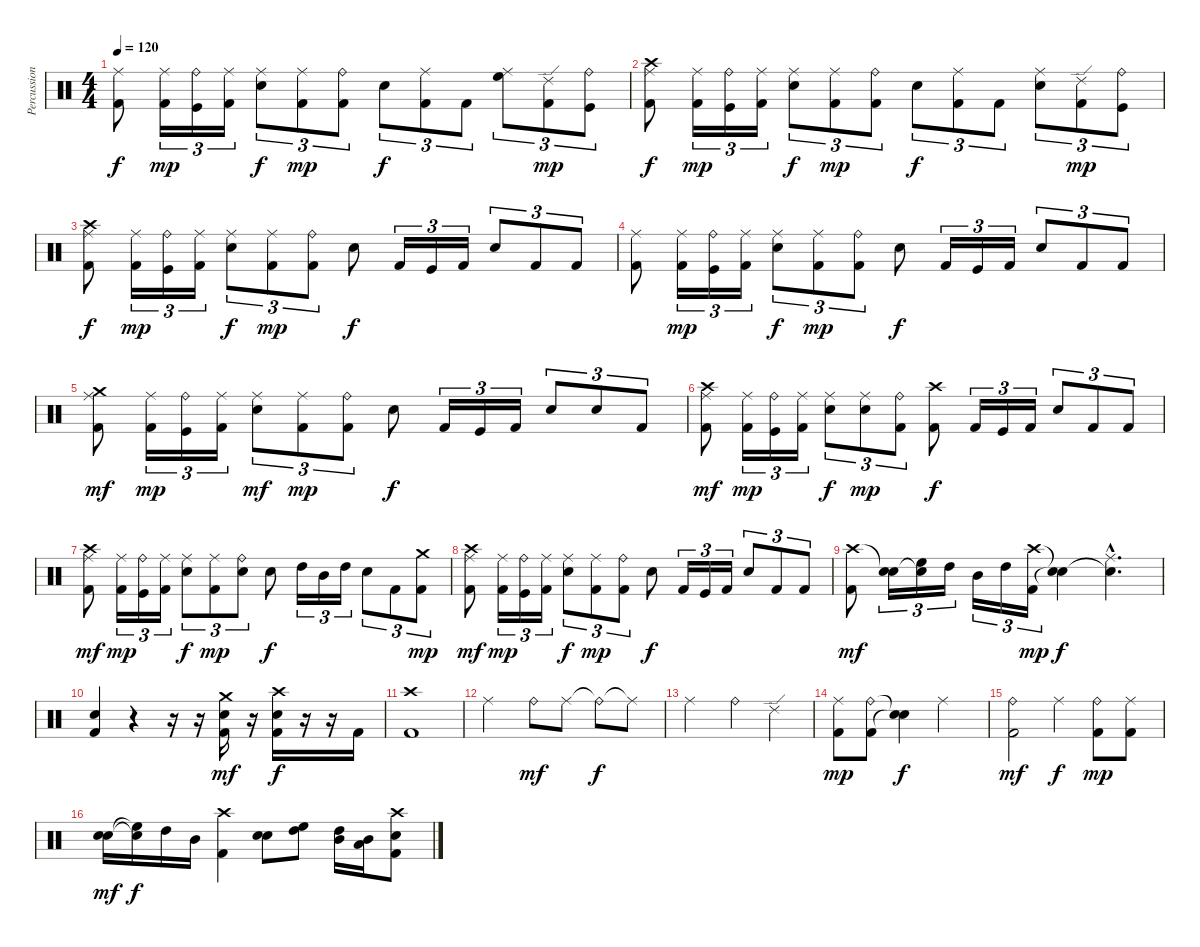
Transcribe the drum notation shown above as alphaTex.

\track ("Percussioni" "Percussion") {instrument percussion}
\staff {score}
\articulation defaults
\ts (4 4)
\tempo 120
\clef neutral
\ks c
("Ride (middle)" "Kick (hit) 2").8{dy f} ("Ride (middle)" "Kick (hit) 2").16{tu (3 2) dy mp} ("Ride (bell)" "Kick (hit)").16{tu (3 2)} ("Ride (middle)" "Kick (hit) 2").16{tu (3 2)} ("Ride (middle)" "Electric Snare (hit)").8{tu (3 2) dy f} ("Ride (middle)" "Kick (hit) 2").8{tu (3 2) dy mp} ("Ride (bell)" "Kick (hit) 2").8{tu (3 2)} "Electric Snare (hit)".8{tu (3 2) dy f} ("Ride (middle)" "Kick (hit) 2").8{tu (3 2)} "Kick (hit) 2".8{tu (3 2)} ("Ride (middle)" "High Floor Tom (hit)").8{tu (3 2)} ("Ride (edge) 2" "Kick (hit) 2").8{tu (3 2) dy mp} ("Ride (bell)" "Kick (hit)").8{tu (3 2)} |
("Crash high (hit)" "Ride (middle)" "Kick (hit) 2").8{dy f} ("Ride (middle)" "Kick (hit) 2").16{tu (3 2) dy mp} ("Ride (bell)" "Kick (hit)").16{tu (3 2)} ("Ride (middle)" "Kick (hit) 2").16{tu (3 2)} ("Ride (middle)" "Electric Snare (hit)").8{tu (3 2) dy f} ("Ride (middle)" "Kick (hit) 2").8{tu (3 2) dy mp} ("Ride (bell)" "Kick (hit) 2").8{tu (3 2)} "Electric Snare (hit)".8{tu (3 2) dy f} ("Ride (middle)" "Kick (hit) 2").8{tu (3 2)} "Kick (hit) 2".8{tu (3 2)} ("Ride (middle)" "Electric Snare (hit)").8{tu (3 2)} ("Ride (edge) 2" "Kick (hit) 2").8{tu (3 2) dy mp} ("Ride (bell)" "Kick (hit)").8{tu (3 2)} |
("Crash high (hit)" "Ride (middle)" "Kick (hit) 2").8{dy f} ("Ride (middle)" "Kick (hit) 2").16{tu (3 2) dy mp} ("Ride (bell)" "Kick (hit)").16{tu (3 2)} ("Ride (middle)" "Kick (hit) 2").16{tu (3 2)} ("Ride (middle)" "Electric Snare (hit)").8{tu (3 2) dy f} ("Ride (middle)" "Kick (hit) 2").8{tu (3 2) dy mp} ("Ride (bell)" "Kick (hit) 2").8{tu (3 2)} "Electric Snare (hit)".8{dy f} "Kick (hit) 2".16{tu (3 2)} "Kick (hit)".16{tu (3 2)} "Kick (hit) 2".16{tu (3 2)} "Electric Snare (hit)".8{tu (3 2)} "Kick (hit) 2".8{tu (3 2)} "Kick (hit) 2".8{tu (3 2)} |
("Ride (middle)" "Kick (hit) 2").8 ("Ride (middle)" "Kick (hit) 2").16{tu (3 2) dy mp} ("Ride (bell)" "Kick (hit)").16{tu (3 2)} ("Ride (middle)" "Kick (hit) 2").16{tu (3 2)} ("Ride (middle)" "Electric Snare (hit)").8{tu (3 2) dy f} ("Ride (middle)" "Kick (hit) 2").8{tu (3 2) dy mp} ("Ride (bell)" "Kick (hit) 2").8{tu (3 2)} "Electric Snare (hit)".8{dy f} "Kick (hit) 2".16{tu (3 2)} "Kick (hit)".16{tu (3 2)} "Kick (hit) 2".16{tu (3 2)} "Electric Snare (hit)".8{tu (3 2)} "Kick (hit) 2".8{tu (3 2)} "Kick (hit) 2".8{tu (3 2)} |
("Crash medium (hit)" "Ride (middle)" "Kick (hit) 2").8{dy mf} ("Ride (middle)" "Kick (hit) 2").16{tu (3 2) dy mp} ("Ride (bell)" "Kick (hit)").16{tu (3 2)} ("Ride (middle)" "Kick (hit) 2").16{tu (3 2)} ("Ride (middle)" "Electric Snare (hit)").8{tu (3 2) dy mf} ("Ride (middle)" "Kick (hit) 2").8{tu (3 2) dy mp} ("Ride (bell)" "Kick (hit) 2").8{tu (3 2)} "Electric Snare (hit)".8{dy f} "Kick (hit) 2".16{tu (3 2)} "Kick (hit)".16{tu (3 2)} "Kick (hit) 2".16{tu (3 2)} "Electric Snare (hit)".8{tu (3 2)} "Electric Snare (hit)".8{tu (3 2)} "Kick (hit) 2".8{tu (3 2)} |
("Crash high (hit)" "Ride (middle)" "Kick (hit) 2").8{dy mf} ("Ride (middle)" "Kick (hit) 2").16{tu (3 2) dy mp} ("Ride (bell)" "Kick (hit)").16{tu (3 2)} ("Ride (middle)" "Kick (hit) 2").16{tu (3 2)} ("Ride (middle)" "Electric Snare (hit)").8{tu (3 2) dy f} ("Ride (middle)" "Electric Snare (hit)").8{tu (3 2) dy mp} ("Ride (bell)" "Kick (hit) 2").8{tu (3 2)} ("Crash high (hit)" "Kick (hit) 2").8{dy f} "Kick (hit) 2".16{tu (3 2)} "Kick (hit)".16{tu (3 2)} "Kick (hit) 2".16{tu (3 2)} "Electric Snare (hit)".8{tu (3 2)} "Kick (hit) 2".8{tu (3 2)} "Kick (hit) 2".8{tu (3 2)} |
("Crash high (hit)" "Ride (middle)" "Kick (hit) 2").8{dy mf} ("Ride (middle)" "Kick (hit) 2").16{tu (3 2) dy mp} ("Ride (bell)" "Kick (hit)").16{tu (3 2)} ("Ride (middle)" "Kick (hit) 2").16{tu (3 2)} ("Ride (middle)" "Electric Snare (hit)").8{tu (3 2) dy f} ("Ride (middle)" "Kick (hit) 2").8{tu (3 2) dy mp} ("Ride (bell)" "Electric Snare (hit)").8{tu (3 2)} "Electric Snare (hit)".8{dy f} "High Tom (hit)".16{tu (3 2)} "Mid Tom (hit)".16{tu (3 2)} "High Tom (hit)".16{tu (3 2)} "Electric Snare (hit)".8{tu (3 2)} "Kick (hit) 2".8{tu (3 2)} ("Crash medium (hit)" "Kick (hit) 2").8{tu (3 2) dy mp} |
("Crash high (hit)" "Ride (middle)" "Kick (hit) 2").8{dy mf} ("Ride (middle)" "Kick (hit) 2").16{tu (3 2) dy mp} ("Ride (bell)" "Kick (hit)").16{tu (3 2)} ("Ride (middle)" "Kick (hit) 2").16{tu (3 2)} ("Ride (middle)" "Electric Snare (hit)").8{tu (3 2) dy f} ("Ride (middle)" "Kick (hit) 2").8{tu (3 2) dy mp} ("Ride (bell)" "Kick (hit) 2").8{tu (3 2)} "Electric Snare (hit)".8{dy f} "Kick (hit) 2".16{tu (3 2)} "Kick (hit)".16{tu (3 2)} "Kick (hit) 2".16{tu (3 2)} "Electric Snare (hit)".8{tu (3 2)} "Kick (hit) 2".8{tu (3 2)} "Kick (hit) 2".8{tu (3 2)} |
("Crash high (hit)" "Kick (hit) 2").8{dy mf} ("Snare (hit)"{t} "Electric Snare (hit)").16{tu (3 2)} ("Snare (hit)"{t} "High Floor Tom (hit)").16{tu (3 2)} "High Tom (hit)".16{tu (3 2)} "Mid Tom (hit)".16{tu (3 2)} "High Tom (hit)".16{tu (3 2)} ("Crash high (hit)" "Kick (hit) 2").16{tu (3 2) dy mp} ("Snare (hit)"{t} "Snare (hit)"{t}).4{dy f} ("Ride (middle)"{hac} "Snare (hit)"{hac t}).4{d} |
("Electric Snare (hit)" "Kick (hit) 2").4 r.4 r.16 r.16 ("Crash medium (hit)" "Electric Snare (hit)" "Kick (hit) 2").16{dy mf} r.16 ("Crash high (hit)" "Electric Snare (hit)" "Kick (hit) 2").16{dy f} r.16 r.16 "Kick (hit) 2".16 |
("Crash high (hit)" "Kick (hit) 2").1 |
"Ride (middle)".2 "Ride (bell)".8{dy mf} "Ride (middle)".8 "Ride (bell)"{t}.8{dy f} "Ride (middle)"{t}.8 |
"Ride (middle)".2 "Ride (bell)".4 "Ride (edge) 2".4 |
("Ride (middle)" "Kick (hit) 2").8{dy mp} ("Ride (bell)" "Kick (hit) 2").8 ("Snare (hit)"{t} "Snare (hit)"{t}).4{dy f} "Ride (middle)".2 |
("Ride (bell)" "Kick (hit) 2").2{dy mf} "Ride (middle)".4{dy f} ("Ride (bell)" "Kick (hit) 2").8{dy mp} ("Ride (middle)" "Kick (hit) 2").8 |
("Electric Snare (hit)" "Electric Snare (hit)").16{bd 240 dy mf} ("Snare (hit)"{t} "High Floor Tom (hit)"{t}).16{dy f} "High Tom (hit)".16 "Mid Tom (hit)".16 ("Crash high (hit)" "Kick (hit) 2").4 ("Snare (hit) 2" "Electric Snare (hit)").8{bd 480} ("High Tom (hit)" "High Floor Tom (hit)").8{bd 480} ("Mid Tom (hit)" "High Tom (hit)").16{bd 120} ("Low Tom (hit)" "Mid Tom (hit)").16{bd 120} ("Crash high (hit)" "Electric Snare (hit)" "Kick (hit) 2").8
